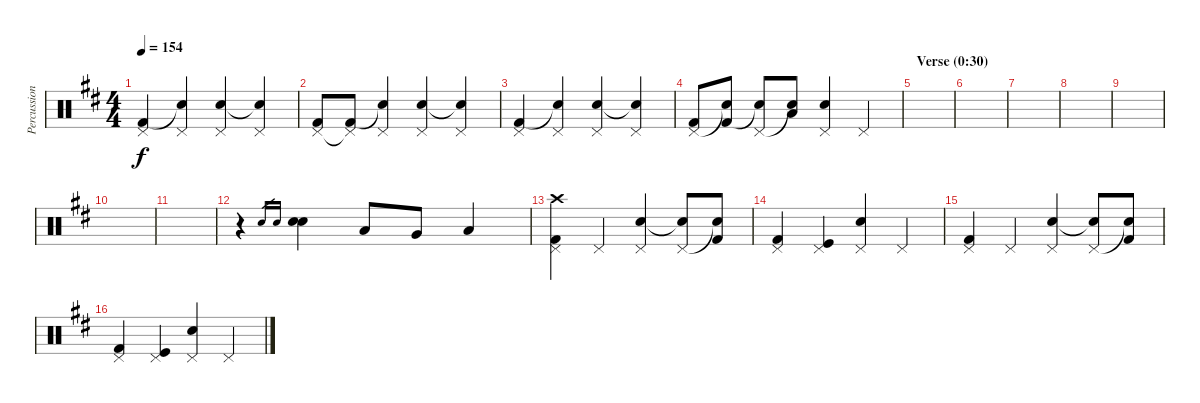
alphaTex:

\track ("Percussion" "Percussion") {instrument percussion}
\staff {score}
\articulation defaults
\ts (4 4)
\tempo 154
\clef neutral
\ks d
("Kick (hit) 2" "Pedal Hi-Hat (hit)").4{dy f} ("Snare (hit)"{t} "Pedal Hi-Hat (hit)").4 ("Electric Snare (hit)" "Pedal Hi-Hat (hit)").4 ("Snare (hit)"{t} "Pedal Hi-Hat (hit)").4 |
("Kick (hit) 2" "Pedal Hi-Hat (hit)").8 ("Kick (hit) 2" "Pedal Hi-Hat (hit)"{t}).8 ("Snare (hit)"{t} "Pedal Hi-Hat (hit)").4 ("Electric Snare (hit)" "Pedal Hi-Hat (hit)").4 ("Snare (hit) 2"{t} "Pedal Hi-Hat (hit)").4 |
("Kick (hit) 2" "Pedal Hi-Hat (hit)").4 ("Snare (hit)"{t} "Pedal Hi-Hat (hit)").4 ("Electric Snare (hit)" "Pedal Hi-Hat (hit)").4 ("Snare (hit)"{t} "Pedal Hi-Hat (hit)").4 |
("Kick (hit) 2" "Pedal Hi-Hat (hit)").8 ("Kick (hit) 2" "Snare (hit)"{t}).8 ("Snare (hit)"{t} "Pedal Hi-Hat (hit)").8 ("Low Floor Tom (hit)" "Snare (hit)"{t}).8 ("Snare (hit) 2" "Pedal Hi-Hat (hit)").4 "Pedal Hi-Hat (hit)".4 |
\section ("" "Verse (0:30)")
|
|
|
|
|
|
|
r.4 "Electric Snare (hit)".16{gr} "Electric Snare (hit)".16{gr} ("Electric Snare (hit)" "Electric Snare (hit)").4 "Low Tom (hit)".8 "Very Low Tom (hit)".8 "Low Floor Tom (hit)".4 |
("Kick (hit) 2" "Pedal Hi-Hat (hit)" "Crash high (hit)").4 "Pedal Hi-Hat (hit)".4 ("Electric Snare (hit)" "Pedal Hi-Hat (hit)").4 ("Snare (hit)"{t} "Pedal Hi-Hat (hit)").8 ("Kick (hit) 2" "Snare (hit)"{t}).8 |
("Kick (hit) 2" "Pedal Hi-Hat (hit)").4 ("Kick (hit)" "Pedal Hi-Hat (hit)").4 ("Electric Snare (hit)" "Pedal Hi-Hat (hit)").4 "Pedal Hi-Hat (hit)".4 |
("Kick (hit) 2" "Pedal Hi-Hat (hit)").4 "Pedal Hi-Hat (hit)".4 ("Electric Snare (hit)" "Pedal Hi-Hat (hit)").4 ("Snare (hit)"{t} "Pedal Hi-Hat (hit)").8 ("Kick (hit) 2" "Snare (hit)"{t}).8 |
("Kick (hit) 2" "Pedal Hi-Hat (hit)").4 ("Kick (hit)" "Pedal Hi-Hat (hit)").4 ("Electric Snare (hit)" "Pedal Hi-Hat (hit)").4 "Pedal Hi-Hat (hit)".4
